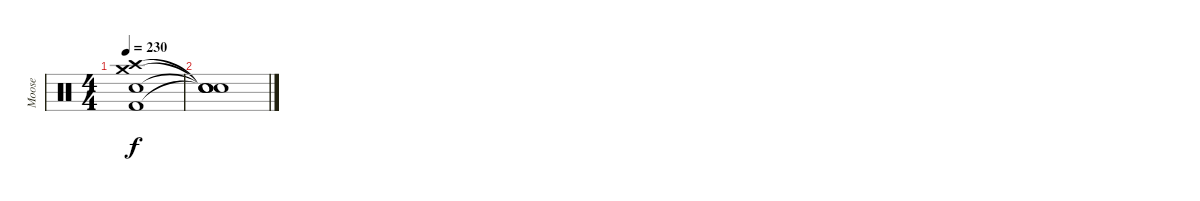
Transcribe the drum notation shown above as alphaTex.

\track ("Moose" "Moose") {instrument percussion}
\staff {score}
\articulation defaults
\ts (4 4)
\tempo 230
\clef neutral
\ks c
("Crash high (hit)" "Crash medium (hit)" "Snare (hit) 2" "Kick (hit) 2").1{dy f} |
("Snare (hit)"{t} "Snare (hit)"{t} "Snare (hit)"{t} "Snare (hit)"{t}).1
